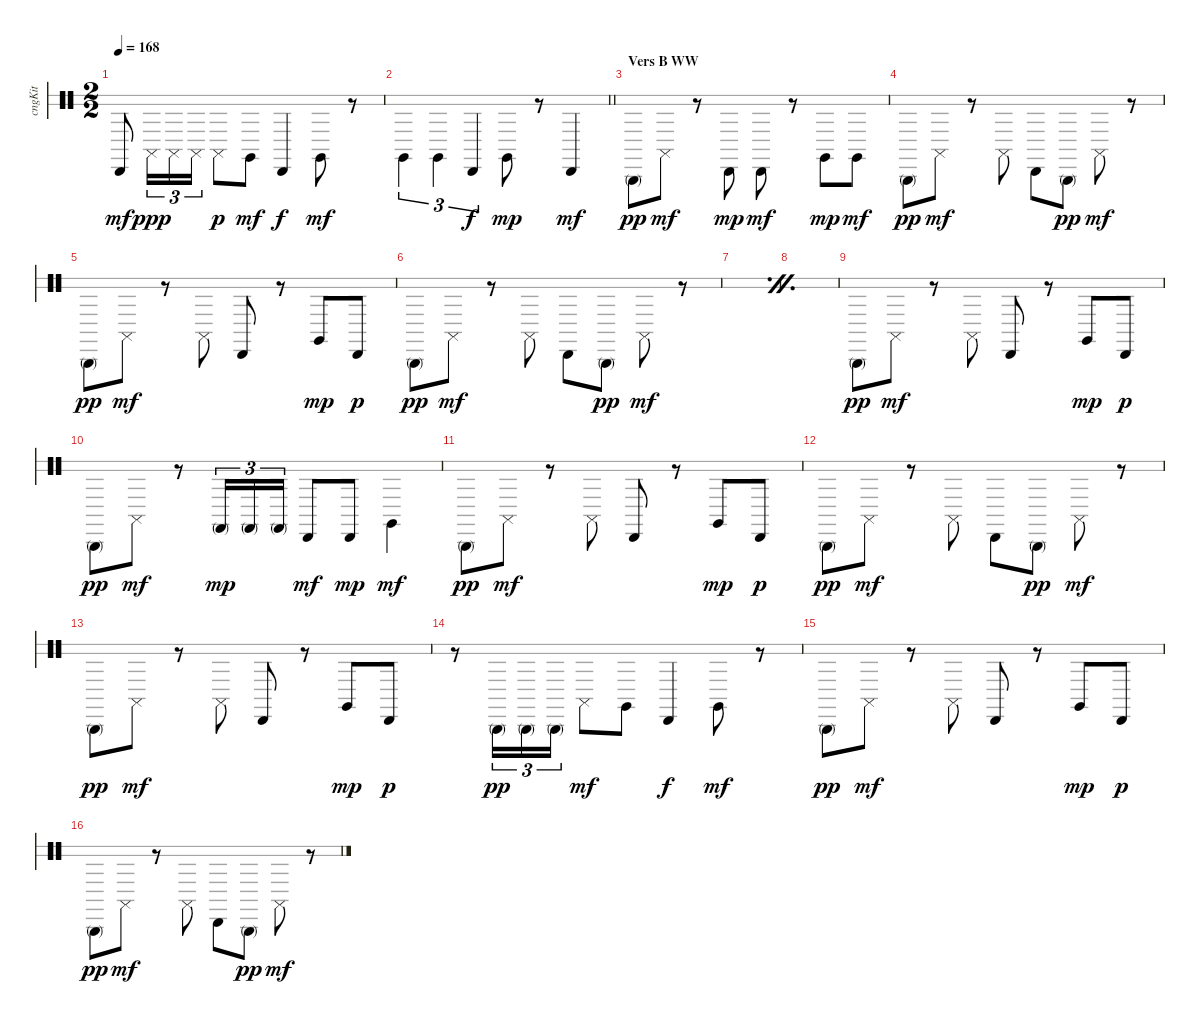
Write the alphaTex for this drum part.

\bracketExtendMode groupsimilarinstruments
\multiTrackTrackNamePolicy hidden
\otherSystemsTrackNameOrientation horizontal
\track ("Congas" "cngKit") {instrument percussion}
\staff {score 2}
\articulation defaults
\ts (2 2)
\tempo 168
\clef neutral
\ks c "Conga low (hit)".8{dy mf beam Up} "Conga high (slap)".16{tu (3 2) dy ppp beam Down} "Conga high (slap)".16{tu (3 2) beam Down} "Conga high (slap)".16{tu (3 2) beam Down} "Conga high (slap)".8{dy p beam Down} "Conga high (hit)".8{dy mf beam Down} "Conga low (hit)".4{dy f beam Up} "Conga high (hit)".8{dy mf beam Down}
r.8{beam Down} |
\barLineRight lightlight "Conga high (hit)".4{tu (3 2) beam Down} "Conga high (hit)".4{tu (3 2) beam Down} "Conga low (hit)".4{tu (3 2) dy f beam Up} "Conga high (hit)".8{dy mp beam Down}
r.8{beam Down} "Conga low (hit)".4{dy mf beam Up} |
\section ("" "Vers B WW")
"Conga high (mute)".8{dy pp beam Down} "Conga high (slap)".8{dy mf beam Down} r.8{beam Down} "Conga low (hit)".8{dy mp beam Down} "Conga low (hit)".8{dy mf beam Down} r.8{beam Down} "Conga high (hit)".8{dy mp beam Down} "Conga high (hit)".8{dy mf beam Down} |
"Conga high (mute)".8{dy pp beam Down} "Conga high (slap)".8{dy mf beam Down} r.8{beam Down} "Conga high (slap)".8{beam Down} "Conga low (hit)".8{beam Down} "Conga high (mute)".8{dy pp beam Down} "Conga high (slap)".8{dy mf beam Down} r.8{beam Down} |
"Conga high (mute)".8{dy pp beam Down} "Conga high (slap)".8{dy mf beam Down} r.8{beam Down} "Conga high (slap)".8{beam Down} "Conga low (hit)".8{beam Up} r.8{beam Up} "Conga high (hit)".8{dy mp beam Up} "Conga low (hit)".8{dy p beam Up} |
"Conga high (mute)".8{dy pp beam Down} "Conga high (slap)".8{dy mf beam Down} r.8{beam Down} "Conga high (slap)".8{beam Down} "Conga low (hit)".8{beam Down} "Conga high (mute)".8{dy pp beam Down} "Conga high (slap)".8{dy mf beam Down} r.8{beam Down} |
\simile firstofdouble
|
\simile secondofdouble
|
\simile none "Conga high (mute)".8{dy pp beam Down} "Conga high (slap)".8{dy mf beam Down}
r.8{beam Down} "Conga high (slap)".8{beam Down} "Conga low (hit)".8{beam Up} r.8{beam Up} "Conga high (hit)".8{dy mp beam Up} "Conga low (hit)".8{dy p beam Up} |
"Conga high (mute)".8{dy pp beam Down} "Conga high (slap)".8{dy mf beam Down} r.8{beam Down} "Conga low (mute)".16{tu (3 2) dy mp beam Up} "Conga low (mute)".16{tu (3 2) beam Up} "Conga low (mute)".16{tu (3 2) beam Up} "Conga low (hit)".8{dy mf beam Up} "Conga low (hit)".8{dy mp beam Up} "Conga high (hit)".4{dy mf beam Down} |
"Conga high (mute)".8{dy pp beam Down} "Conga high (slap)".8{dy mf beam Down} r.8{beam Down} "Conga high (slap)".8{beam Down} "Conga low (hit)".8{beam Up} r.8{beam Up} "Conga high (hit)".8{dy mp beam Up} "Conga low (hit)".8{dy p beam Up} |
"Conga high (mute)".8{dy pp beam Down} "Conga high (slap)".8{dy mf beam Down} r.8{beam Down} "Conga high (slap)".8{beam Down} "Conga low (hit)".8{beam Down} "Conga high (mute)".8{dy pp beam Down} "Conga high (slap)".8{dy mf beam Down} r.8{beam Down} |
"Conga high (mute)".8{dy pp beam Down} "Conga high (slap)".8{dy mf beam Down} r.8{beam Down} "Conga high (slap)".8{beam Down} "Conga low (hit)".8{beam Up} r.8{beam Up} "Conga high (hit)".8{dy mp beam Up} "Conga low (hit)".8{dy p beam Up} |
r.8{beam Down} "Conga high (mute)".16{tu (3 2) dy pp beam Down} "Conga high (mute)".16{tu (3 2) beam Down} "Conga high (mute)".16{tu (3 2) beam Down} "Conga high (slap)".8{dy mf beam Down} "Conga high (hit)".8{beam Down} "Conga low (hit)".4{dy f beam Up} "Conga high (hit)".8{dy mf beam Down} r.8{beam Down} |
"Conga high (mute)".8{dy pp beam Down} "Conga high (slap)".8{dy mf beam Down} r.8{beam Down} "Conga high (slap)".8{beam Down} "Conga low (hit)".8{beam Up} r.8{beam Up} "Conga high (hit)".8{dy mp beam Up} "Conga low (hit)".8{dy p beam Up} |
"Conga high (mute)".8{dy pp beam Down} "Conga high (slap)".8{dy mf beam Down} r.8{beam Down} "Conga high (slap)".8{beam Down} "Conga low (hit)".8{beam Down} "Conga high (mute)".8{dy pp beam Down} "Conga high (slap)".8{dy mf beam Down} r.8{beam Down}
